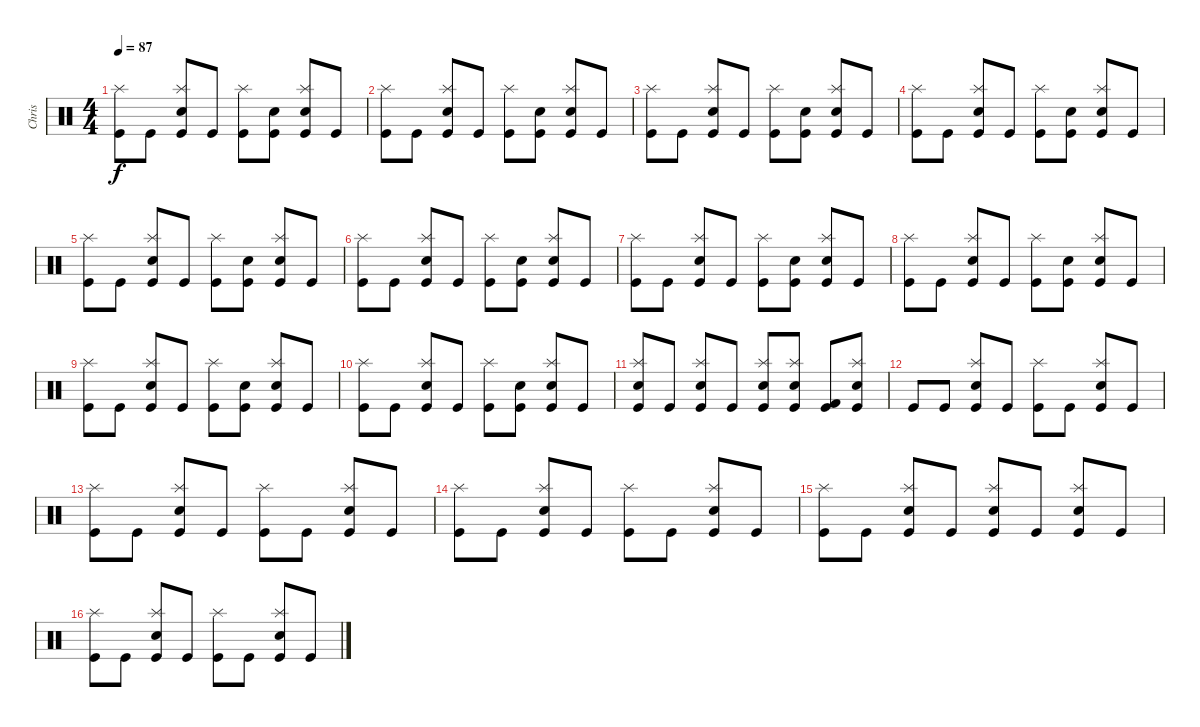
\track ("Chris" "Chris") {instrument percussion}
\staff {score}
\articulation defaults
\ts (4 4)
\tempo 87
\clef neutral
\ks c
("Kick (hit)" "Splash (hit)").8{dy f} "Kick (hit)".8 ("Kick (hit)" "Splash (hit)" "Snare (hit) 2").8 "Kick (hit)".8 ("Kick (hit)" "Splash (hit)").8 ("Kick (hit)" "Snare (hit) 2").8 ("Kick (hit)" "Splash (hit)" "Snare (hit) 2").8 "Kick (hit)".8 |
("Kick (hit)" "Splash (hit)").8 "Kick (hit)".8 ("Kick (hit)" "Splash (hit)" "Snare (hit) 2").8 "Kick (hit)".8 ("Kick (hit)" "Splash (hit)").8 ("Kick (hit)" "Snare (hit) 2").8 ("Kick (hit)" "Splash (hit)" "Snare (hit) 2").8 "Kick (hit)".8 |
("Kick (hit)" "Splash (hit)").8 "Kick (hit)".8 ("Kick (hit)" "Splash (hit)" "Snare (hit) 2").8 "Kick (hit)".8 ("Kick (hit)" "Splash (hit)").8 ("Kick (hit)" "Snare (hit) 2").8 ("Kick (hit)" "Splash (hit)" "Snare (hit) 2").8 "Kick (hit)".8 |
("Kick (hit)" "Splash (hit)").8 "Kick (hit)".8 ("Kick (hit)" "Splash (hit)" "Snare (hit) 2").8 "Kick (hit)".8 ("Kick (hit)" "Splash (hit)").8 ("Kick (hit)" "Snare (hit) 2").8 ("Kick (hit)" "Splash (hit)" "Snare (hit) 2").8 "Kick (hit)".8 |
("Kick (hit)" "Splash (hit)").8 "Kick (hit)".8 ("Kick (hit)" "Splash (hit)" "Snare (hit) 2").8 "Kick (hit)".8 ("Kick (hit)" "Splash (hit)").8 ("Kick (hit)" "Snare (hit) 2").8 ("Kick (hit)" "Splash (hit)" "Snare (hit) 2").8 "Kick (hit)".8 |
("Kick (hit)" "Splash (hit)").8 "Kick (hit)".8 ("Kick (hit)" "Splash (hit)" "Snare (hit) 2").8 "Kick (hit)".8 ("Kick (hit)" "Splash (hit)").8 ("Kick (hit)" "Snare (hit) 2").8 ("Kick (hit)" "Splash (hit)" "Snare (hit) 2").8 "Kick (hit)".8 |
("Kick (hit)" "Splash (hit)").8 "Kick (hit)".8 ("Kick (hit)" "Splash (hit)" "Snare (hit) 2").8 "Kick (hit)".8 ("Kick (hit)" "Splash (hit)").8 ("Kick (hit)" "Snare (hit) 2").8 ("Kick (hit)" "Splash (hit)" "Snare (hit) 2").8 "Kick (hit)".8 |
("Kick (hit)" "Splash (hit)").8 "Kick (hit)".8 ("Kick (hit)" "Splash (hit)" "Snare (hit) 2").8 "Kick (hit)".8 ("Kick (hit)" "Splash (hit)").8 ("Kick (hit)" "Snare (hit) 2").8 ("Kick (hit)" "Splash (hit)" "Snare (hit) 2").8 "Kick (hit)".8 |
("Kick (hit)" "Splash (hit)").8 "Kick (hit)".8 ("Kick (hit)" "Splash (hit)" "Snare (hit) 2").8 "Kick (hit)".8 ("Kick (hit)" "Splash (hit)").8 ("Kick (hit)" "Snare (hit) 2").8 ("Kick (hit)" "Splash (hit)" "Snare (hit) 2").8 "Kick (hit)".8 |
("Kick (hit)" "Splash (hit)").8 "Kick (hit)".8 ("Kick (hit)" "Splash (hit)" "Snare (hit) 2").8 "Kick (hit)".8 ("Kick (hit)" "Splash (hit)").8 ("Kick (hit)" "Snare (hit) 2").8 ("Kick (hit)" "Splash (hit)" "Snare (hit) 2").8 "Kick (hit)".8 |
("Kick (hit)" "Splash (hit)" "Snare (hit) 2").8 "Kick (hit)".8 ("Kick (hit)" "Splash (hit)" "Snare (hit) 2").8 "Kick (hit)".8 ("Kick (hit)" "Splash (hit)" "Snare (hit) 2").8 ("Kick (hit)" "Splash (hit)" "Snare (hit) 2").8 ("Kick (hit)" "Kick (hit) 2").8 ("Kick (hit)" "Splash (hit)" "Snare (hit) 2").8 |
"Kick (hit)".8 "Kick (hit)".8 ("Kick (hit)" "Splash (hit)" "Snare (hit) 2").8 "Kick (hit)".8 ("Kick (hit)" "Splash (hit)").8 "Kick (hit)".8 ("Kick (hit)" "Splash (hit)" "Snare (hit) 2").8 "Kick (hit)".8 |
("Kick (hit)" "Splash (hit)").8 "Kick (hit)".8 ("Kick (hit)" "Splash (hit)" "Snare (hit) 2").8 "Kick (hit)".8 ("Kick (hit)" "Splash (hit)").8 "Kick (hit)".8 ("Kick (hit)" "Splash (hit)" "Snare (hit) 2").8 "Kick (hit)".8 |
("Kick (hit)" "Splash (hit)").8 "Kick (hit)".8 ("Kick (hit)" "Splash (hit)" "Snare (hit) 2").8 "Kick (hit)".8 ("Kick (hit)" "Splash (hit)").8 "Kick (hit)".8 ("Kick (hit)" "Splash (hit)" "Snare (hit) 2").8 "Kick (hit)".8 |
("Kick (hit)" "Splash (hit)").8 "Kick (hit)".8 ("Kick (hit)" "Splash (hit)" "Snare (hit) 2").8 "Kick (hit)".8 ("Kick (hit)" "Splash (hit)" "Snare (hit) 2").8 "Kick (hit)".8 ("Kick (hit)" "Splash (hit)" "Snare (hit) 2").8 "Kick (hit)".8 |
("Kick (hit)" "Splash (hit)").8 "Kick (hit)".8 ("Kick (hit)" "Splash (hit)" "Snare (hit) 2").8 "Kick (hit)".8 ("Kick (hit)" "Splash (hit)").8 "Kick (hit)".8 ("Kick (hit)" "Splash (hit)" "Snare (hit) 2").8 "Kick (hit)".8
